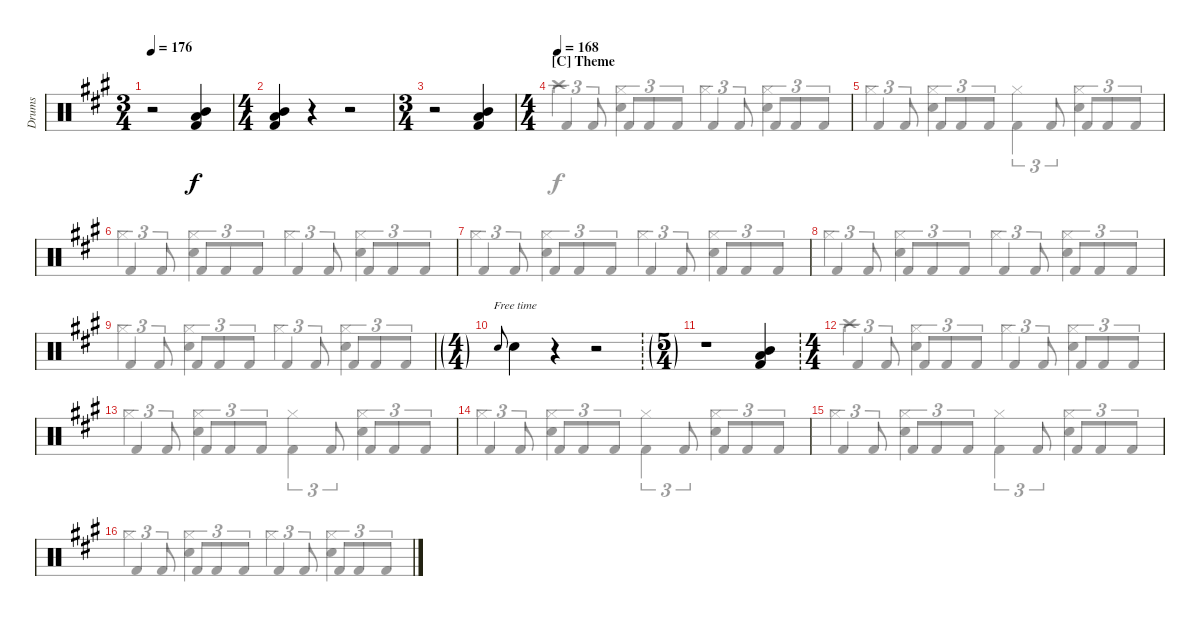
\defaultSystemsLayout 4
\bracketExtendMode groupsimilarinstruments
\otherSystemsTrackNameOrientation horizontal
\track ("Drums" "Drums") {instrument percussion}
\staff {score}
\articulation defaults
\voice
\ts (3 4)
\tempo 176
\clef neutral
\ks a
r.2{dy f beam Down} ("Kick (hit) 2"{acc forcenatural} "Low Tom (hit)"{acc forcenatural} "Mid Tom (hit)"{acc forcenatural}).4{beam Up} |
\ts (4 4)
("Kick (hit) 2"{acc forcenatural} "Low Tom (hit)"{acc forcenatural} "Mid Tom (hit)"{acc forcenatural}).4{beam Up} r.4{beam Up} r.2{beam Up} |
\ts (3 4)
r.2{beam Down} ("Kick (hit) 2"{acc forcenatural} "Low Tom (hit)"{acc forcenatural} "Mid Tom (hit)"{acc forcenatural}).4{beam Up} |
\ts (4 4)
\section ("C" "Theme")
\tempo 168
|
|
|
|
|
|
\ft "Snare (hit) 2"{acc forcenatural}.8{gr onbeat beam Up} "Snare (hit) 2"{acc forcenatural}.4{beam Down}
r.4{beam Down} r.2{beam Down} |
\ts (5 4)
\ft
r.1{beam Down} ("Kick (hit) 2"{acc forcenatural} "Low Tom (hit)"{acc forcenatural} "Mid Tom (hit)"{acc forcenatural}).4{beam Up} |
\ts (4 4)
|
|
|
|
\voice
\clef neutral
\ottava regular
\simile none
\ks a
|
|
|
"Kick (hit) 2"{acc forcenatural}.4{tu (3 2) dy f beam Up} "Kick (hit) 2"{acc forcenatural}.8{tu (3 2) beam Up} "Kick (hit) 2"{acc forcenatural}.8{tu (3 2) beam Up} "Kick (hit) 2"{acc forcenatural}.8{tu (3 2) beam Up} "Kick (hit) 2"{acc forcenatural}.8{tu (3 2) beam Up} "Kick (hit) 2"{acc forcenatural}.4{tu (3 2) beam Up} "Kick (hit) 2"{acc forcenatural}.8{tu (3 2) beam Up} "Kick (hit) 2"{acc forcenatural}.8{tu (3 2) beam Up} "Kick (hit) 2"{acc forcenatural}.8{tu (3 2) beam Up} "Kick (hit) 2"{acc forcenatural}.8{tu (3 2) beam Up} |
"Kick (hit) 2"{acc forcenatural}.4{tu (3 2) beam Up} "Kick (hit) 2"{acc forcenatural}.8{tu (3 2) beam Up} "Kick (hit) 2"{acc forcenatural}.8{tu (3 2) beam Up} "Kick (hit) 2"{acc forcenatural}.8{tu (3 2) beam Up} "Kick (hit) 2"{acc forcenatural}.8{tu (3 2) beam Up} "Kick (hit) 2"{acc forcenatural}.4{tu (3 2) beam Down} "Kick (hit) 2"{acc forcenatural}.8{tu (3 2) beam Up} "Kick (hit) 2"{acc forcenatural}.8{tu (3 2) beam Up} "Kick (hit) 2"{acc forcenatural}.8{tu (3 2) beam Up} "Kick (hit) 2"{acc forcenatural}.8{tu (3 2) beam Up} |
"Kick (hit) 2"{acc forcenatural}.4{tu (3 2) beam Up} "Kick (hit) 2"{acc forcenatural}.8{tu (3 2) beam Up} "Kick (hit) 2"{acc forcenatural}.8{tu (3 2) beam Up} "Kick (hit) 2"{acc forcenatural}.8{tu (3 2) beam Up} "Kick (hit) 2"{acc forcenatural}.8{tu (3 2) beam Up} "Kick (hit) 2"{acc forcenatural}.4{tu (3 2) beam Up} "Kick (hit) 2"{acc forcenatural}.8{tu (3 2) beam Up} "Kick (hit) 2"{acc forcenatural}.8{tu (3 2) beam Up} "Kick (hit) 2"{acc forcenatural}.8{tu (3 2) beam Up} "Kick (hit) 2"{acc forcenatural}.8{tu (3 2) beam Up} |
"Kick (hit) 2"{acc forcenatural}.4{tu (3 2) beam Up} "Kick (hit) 2"{acc forcenatural}.8{tu (3 2) beam Up} "Kick (hit) 2"{acc forcenatural}.8{tu (3 2) beam Up} "Kick (hit) 2"{acc forcenatural}.8{tu (3 2) beam Up} "Kick (hit) 2"{acc forcenatural}.8{tu (3 2) beam Up} "Kick (hit) 2"{acc forcenatural}.4{tu (3 2) beam Up} "Kick (hit) 2"{acc forcenatural}.8{tu (3 2) beam Up} "Kick (hit) 2"{acc forcenatural}.8{tu (3 2) beam Up} "Kick (hit) 2"{acc forcenatural}.8{tu (3 2) beam Up} "Kick (hit) 2"{acc forcenatural}.8{tu (3 2) beam Up} |
"Kick (hit) 2"{acc forcenatural}.4{tu (3 2) beam Up} "Kick (hit) 2"{acc forcenatural}.8{tu (3 2) beam Up} "Kick (hit) 2"{acc forcenatural}.8{tu (3 2) beam Up} "Kick (hit) 2"{acc forcenatural}.8{tu (3 2) beam Up} "Kick (hit) 2"{acc forcenatural}.8{tu (3 2) beam Up} "Kick (hit) 2"{acc forcenatural}.4{tu (3 2) beam Up} "Kick (hit) 2"{acc forcenatural}.8{tu (3 2) beam Up} "Kick (hit) 2"{acc forcenatural}.8{tu (3 2) beam Up} "Kick (hit) 2"{acc forcenatural}.8{tu (3 2) beam Up} "Kick (hit) 2"{acc forcenatural}.8{tu (3 2) beam Up} |
"Kick (hit) 2"{acc forcenatural}.4{tu (3 2) beam Up} "Kick (hit) 2"{acc forcenatural}.8{tu (3 2) beam Up} "Kick (hit) 2"{acc forcenatural}.8{tu (3 2) beam Up} "Kick (hit) 2"{acc forcenatural}.8{tu (3 2) beam Up} "Kick (hit) 2"{acc forcenatural}.8{tu (3 2) beam Up} "Kick (hit) 2"{acc forcenatural}.4{tu (3 2) beam Up} "Kick (hit) 2"{acc forcenatural}.8{tu (3 2) beam Up} "Kick (hit) 2"{acc forcenatural}.8{tu (3 2) beam Up} "Kick (hit) 2"{acc forcenatural}.8{tu (3 2) beam Up} "Kick (hit) 2"{acc forcenatural}.8{tu (3 2) beam Up} |
|
|
"Kick (hit) 2"{acc forcenatural}.4{tu (3 2) beam Up} "Kick (hit) 2"{acc forcenatural}.8{tu (3 2) beam Up} "Kick (hit) 2"{acc forcenatural}.8{tu (3 2) beam Up} "Kick (hit) 2"{acc forcenatural}.8{tu (3 2) beam Up} "Kick (hit) 2"{acc forcenatural}.8{tu (3 2) beam Up} "Kick (hit) 2"{acc forcenatural}.4{tu (3 2) beam Up} "Kick (hit) 2"{acc forcenatural}.8{tu (3 2) beam Up} "Kick (hit) 2"{acc forcenatural}.8{tu (3 2) beam Up} "Kick (hit) 2"{acc forcenatural}.8{tu (3 2) beam Up} "Kick (hit) 2"{acc forcenatural}.8{tu (3 2) beam Up} |
"Kick (hit) 2"{acc forcenatural}.4{tu (3 2) beam Up} "Kick (hit) 2"{acc forcenatural}.8{tu (3 2) beam Up} "Kick (hit) 2"{acc forcenatural}.8{tu (3 2) beam Up} "Kick (hit) 2"{acc forcenatural}.8{tu (3 2) beam Up} "Kick (hit) 2"{acc forcenatural}.8{tu (3 2) beam Up} "Kick (hit) 2"{acc forcenatural}.4{tu (3 2) beam Down} "Kick (hit) 2"{acc forcenatural}.8{tu (3 2) beam Up} "Kick (hit) 2"{acc forcenatural}.8{tu (3 2) beam Up} "Kick (hit) 2"{acc forcenatural}.8{tu (3 2) beam Up} "Kick (hit) 2"{acc forcenatural}.8{tu (3 2) beam Up} |
"Kick (hit) 2"{acc forcenatural}.4{tu (3 2) beam Up} "Kick (hit) 2"{acc forcenatural}.8{tu (3 2) beam Up} "Kick (hit) 2"{acc forcenatural}.8{tu (3 2) beam Up} "Kick (hit) 2"{acc forcenatural}.8{tu (3 2) beam Up} "Kick (hit) 2"{acc forcenatural}.8{tu (3 2) beam Up} "Kick (hit) 2"{acc forcenatural}.4{tu (3 2) beam Down} "Kick (hit) 2"{acc forcenatural}.8{tu (3 2) beam Up} "Kick (hit) 2"{acc forcenatural}.8{tu (3 2) beam Up} "Kick (hit) 2"{acc forcenatural}.8{tu (3 2) beam Up} "Kick (hit) 2"{acc forcenatural}.8{tu (3 2) beam Up} |
"Kick (hit) 2"{acc forcenatural}.4{tu (3 2) beam Up} "Kick (hit) 2"{acc forcenatural}.8{tu (3 2) beam Up} "Kick (hit) 2"{acc forcenatural}.8{tu (3 2) beam Up} "Kick (hit) 2"{acc forcenatural}.8{tu (3 2) beam Up} "Kick (hit) 2"{acc forcenatural}.8{tu (3 2) beam Up} "Kick (hit) 2"{acc forcenatural}.4{tu (3 2) beam Down} "Kick (hit) 2"{acc forcenatural}.8{tu (3 2) beam Up} "Kick (hit) 2"{acc forcenatural}.8{tu (3 2) beam Up} "Kick (hit) 2"{acc forcenatural}.8{tu (3 2) beam Up} "Kick (hit) 2"{acc forcenatural}.8{tu (3 2) beam Up} |
"Kick (hit) 2"{acc forcenatural}.4{tu (3 2) beam Up} "Kick (hit) 2"{acc forcenatural}.8{tu (3 2) beam Up} "Kick (hit) 2"{acc forcenatural}.8{tu (3 2) beam Up} "Kick (hit) 2"{acc forcenatural}.8{tu (3 2) beam Up} "Kick (hit) 2"{acc forcenatural}.8{tu (3 2) beam Up} "Kick (hit) 2"{acc forcenatural}.4{tu (3 2) beam Up} "Kick (hit) 2"{acc forcenatural}.8{tu (3 2) beam Up} "Kick (hit) 2"{acc forcenatural}.8{tu (3 2) beam Up} "Kick (hit) 2"{acc forcenatural}.8{tu (3 2) beam Up} "Kick (hit) 2"{acc forcenatural}.8{tu (3 2) beam Up}
\voice
\clef neutral
\ottava regular
\simile none
\ks a
|
|
|
|
|
|
|
|
|
|
|
|
|
|
|
\voice
\clef neutral
\ottava regular
\simile none
\ks a
|
|
|
"Crash high (hit)"{acc forcenatural}.4{beam Down} ("Hi-Hat (closed)"{acc forcenatural} "Snare (hit) 2"{acc forcenatural}).4{beam Down} "Hi-Hat (closed)"{acc forcenatural}.4{beam Down} ("Hi-Hat (closed)"{acc forcenatural} "Snare (hit) 2"{acc forcenatural}).4{beam Down} |
"Hi-Hat (closed)"{acc forcenatural}.4{beam Down} ("Hi-Hat (closed)"{acc forcenatural} "Snare (hit) 2"{acc forcenatural}).4{beam Down} "Hi-Hat (closed)"{acc forcenatural}.4{beam Down} ("Hi-Hat (closed)"{acc forcenatural} "Snare (hit) 2"{acc forcenatural}).4{beam Down} |
"Hi-Hat (closed)"{acc forcenatural}.4{beam Down} ("Hi-Hat (closed)"{acc forcenatural} "Snare (hit) 2"{acc forcenatural}).4{beam Down} "Hi-Hat (closed)"{acc forcenatural}.4{beam Down} ("Hi-Hat (closed)"{acc forcenatural} "Snare (hit) 2"{acc forcenatural}).4{beam Down} |
"Hi-Hat (closed)"{acc forcenatural}.4{beam Down} ("Hi-Hat (closed)"{acc forcenatural} "Snare (hit) 2"{acc forcenatural}).4{beam Down} "Hi-Hat (closed)"{acc forcenatural}.4{beam Down} ("Hi-Hat (closed)"{acc forcenatural} "Snare (hit) 2"{acc forcenatural}).4{beam Down} |
"Hi-Hat (closed)"{acc forcenatural}.4{beam Down} ("Hi-Hat (closed)"{acc forcenatural} "Snare (hit) 2"{acc forcenatural}).4{beam Down} "Hi-Hat (closed)"{acc forcenatural}.4{beam Down} ("Hi-Hat (closed)"{acc forcenatural} "Snare (hit) 2"{acc forcenatural}).4{beam Down} |
"Hi-Hat (closed)"{acc forcenatural}.4{beam Down} ("Hi-Hat (closed)"{acc forcenatural} "Snare (hit) 2"{acc forcenatural}).4{beam Down} "Hi-Hat (closed)"{acc forcenatural}.4{beam Down} ("Hi-Hat (closed)"{acc forcenatural} "Snare (hit) 2"{acc forcenatural}).4{beam Down} |
|
|
"Crash high (hit)"{acc forcenatural}.4{beam Down} ("Hi-Hat (closed)"{acc forcenatural} "Snare (hit) 2"{acc forcenatural}).4{beam Down} "Hi-Hat (closed)"{acc forcenatural}.4{beam Down} ("Hi-Hat (closed)"{acc forcenatural} "Snare (hit) 2"{acc forcenatural}).4{beam Down} |
"Hi-Hat (closed)"{acc forcenatural}.4{beam Down} ("Hi-Hat (closed)"{acc forcenatural} "Snare (hit) 2"{acc forcenatural}).4{beam Down} "Hi-Hat (closed)"{acc forcenatural}.4{beam Down} ("Hi-Hat (closed)"{acc forcenatural} "Snare (hit) 2"{acc forcenatural}).4{beam Down} |
"Hi-Hat (closed)"{acc forcenatural}.4{beam Down} ("Hi-Hat (closed)"{acc forcenatural} "Snare (hit) 2"{acc forcenatural}).4{beam Down} "Hi-Hat (closed)"{acc forcenatural}.4{beam Down} ("Hi-Hat (closed)"{acc forcenatural} "Snare (hit) 2"{acc forcenatural}).4{beam Down} |
"Hi-Hat (closed)"{acc forcenatural}.4{beam Down} ("Hi-Hat (closed)"{acc forcenatural} "Snare (hit) 2"{acc forcenatural}).4{beam Down} "Hi-Hat (closed)"{acc forcenatural}.4{beam Down} ("Hi-Hat (closed)"{acc forcenatural} "Snare (hit) 2"{acc forcenatural}).4{beam Down} |
"Hi-Hat (closed)"{acc forcenatural}.4{beam Down} ("Hi-Hat (closed)"{acc forcenatural} "Snare (hit) 2"{acc forcenatural}).4{beam Down} "Hi-Hat (closed)"{acc forcenatural}.4{beam Down} ("Hi-Hat (closed)"{acc forcenatural} "Snare (hit) 2"{acc forcenatural}).4{beam Down}
